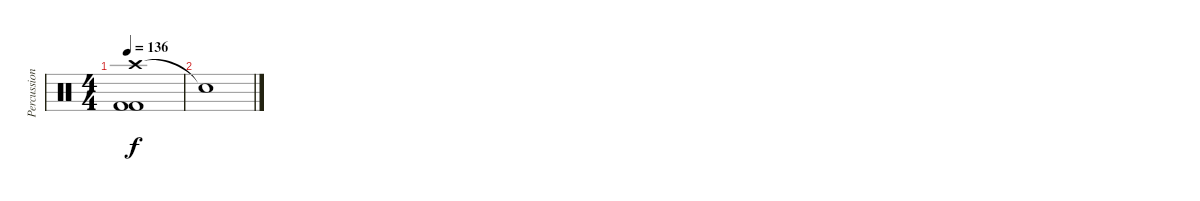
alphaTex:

\track ("Percussioni" "Percussion") {instrument percussion}
\staff {score}
\articulation defaults
\ts (4 4)
\tempo 136
\clef neutral
\ks c
("Crash high (hit)" "Kick (hit) 2" "Kick (hit) 2").1{dy f} |
"Snare (hit)"{t}.1
